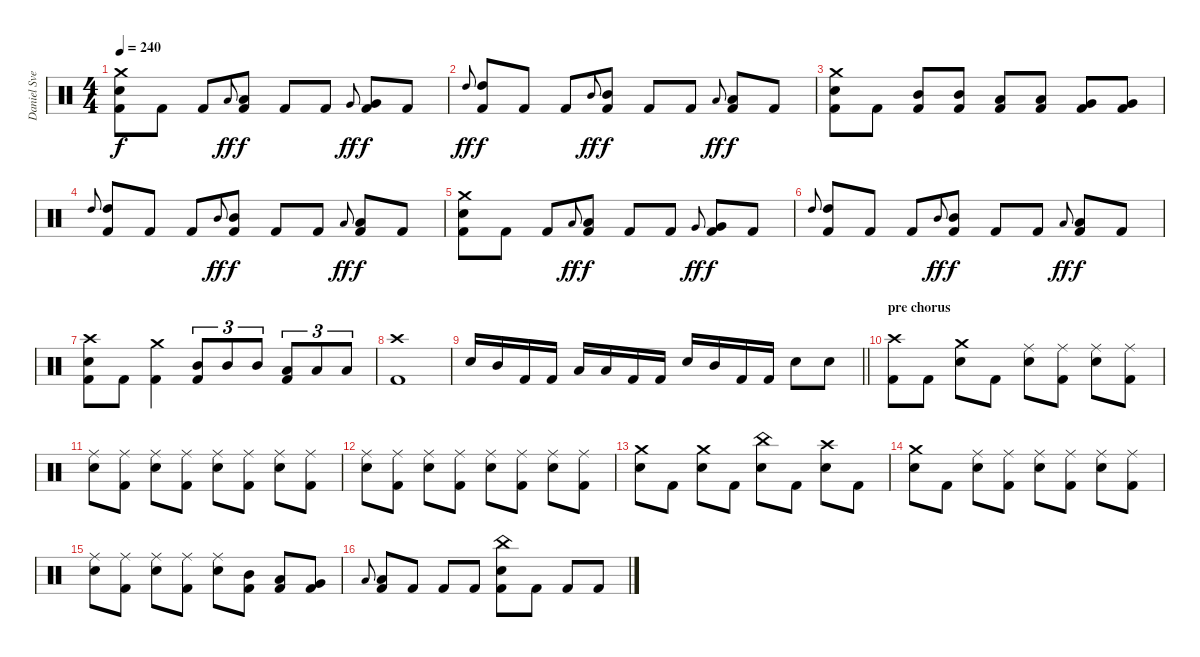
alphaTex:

\track ("Daniel Svensson" "Daniel Sve") {instrument percussion}
\staff {score}
\articulation defaults
\ts (4 4)
\tempo 240
\clef neutral
\ks c
("Crash medium (hit)" "Electric Snare (hit)" "Kick (hit) 2").8{dy f} "Kick (hit) 2".8 "Kick (hit) 2".8 "Low Tom (hit)".8{gr onbeat dy ff} ("Low Tom (hit)" "Kick (hit) 2").8{dy f} "Kick (hit) 2".8 "Kick (hit) 2".8 "Very Low Tom (hit)".8{gr onbeat dy ff} ("Very Low Tom (hit)" "Kick (hit) 2").8{dy f} "Kick (hit) 2".8 |
"High Tom (hit)".8{gr onbeat dy ff} ("High Tom (hit)" "Kick (hit) 2").8{dy f} "Kick (hit) 2".8 "Kick (hit) 2".8 "Mid Tom (hit)".8{gr onbeat dy ff} ("Mid Tom (hit)" "Kick (hit) 2").8{dy f} "Kick (hit) 2".8 "Kick (hit) 2".8 "Low Tom (hit)".8{gr onbeat dy ff} ("Low Tom (hit)" "Kick (hit) 2").8{dy f} "Kick (hit) 2".8 |
("Crash medium (hit)" "Electric Snare (hit)" "Kick (hit) 2").8 "Kick (hit) 2".8 ("Mid Tom (hit)" "Kick (hit) 2").8 ("Mid Tom (hit)" "Kick (hit) 2").8 ("Low Tom (hit)" "Kick (hit) 2").8 ("Low Tom (hit)" "Kick (hit) 2").8 ("Very Low Tom (hit)" "Kick (hit) 2").8 ("Very Low Tom (hit)" "Kick (hit) 2").8 |
"High Tom (hit)".8{gr onbeat} ("High Tom (hit)" "Kick (hit) 2").8 "Kick (hit) 2".8 "Kick (hit) 2".8 "Mid Tom (hit)".8{gr onbeat dy ff} ("Mid Tom (hit)" "Kick (hit) 2").8{dy f} "Kick (hit) 2".8 "Kick (hit) 2".8 "Low Tom (hit)".8{gr onbeat dy ff} ("Low Tom (hit)" "Kick (hit) 2").8{dy f} "Kick (hit) 2".8 |
("Crash medium (hit)" "Electric Snare (hit)" "Kick (hit) 2").8 "Kick (hit) 2".8 "Kick (hit) 2".8 "Low Tom (hit)".8{gr onbeat dy ff} ("Low Tom (hit)" "Kick (hit) 2").8{dy f} "Kick (hit) 2".8 "Kick (hit) 2".8 "Very Low Tom (hit)".8{gr onbeat dy ff} ("Very Low Tom (hit)" "Kick (hit) 2").8{dy f} "Kick (hit) 2".8 |
"High Tom (hit)".8{gr onbeat} ("High Tom (hit)" "Kick (hit) 2").8 "Kick (hit) 2".8 "Kick (hit) 2".8 "Mid Tom (hit)".8{gr onbeat dy ff} ("Mid Tom (hit)" "Kick (hit) 2").8{dy f} "Kick (hit) 2".8 "Kick (hit) 2".8 "Low Tom (hit)".8{gr onbeat dy ff} ("Low Tom (hit)" "Kick (hit) 2").8{dy f} "Kick (hit) 2".8 |
("Crash high (hit)" "Electric Snare (hit)" "Kick (hit) 2").8 "Kick (hit) 2".8 ("Crash medium (hit)" "Kick (hit) 2").4 ("Mid Tom (hit)" "Kick (hit) 2").8{tu (3 2)} "Mid Tom (hit)".8{tu (3 2)} "Mid Tom (hit)".8{tu (3 2)} ("Low Tom (hit)" "Kick (hit) 2").8{tu (3 2)} "Low Tom (hit)".8{tu (3 2)} "Low Tom (hit)".8{tu (3 2)} |
("Crash high (hit)" "Kick (hit) 2").1 |
\barLineRight lightlight "Electric Snare (hit)".16 "Mid Tom (hit)".16 "Kick (hit) 2".16 "Kick (hit) 2".16 "Low Tom (hit)".16 "Low Tom (hit)".16 "Kick (hit) 2".16 "Kick (hit) 2".16 "Electric Snare (hit)".16 "Mid Tom (hit)".16 "Kick (hit) 2".16 "Kick (hit) 2".16 "Electric Snare (hit)".8 "Electric Snare (hit)".8
|
\section ("" "pre chorus")
("Crash high (hit)" "Kick (hit) 2").8 "Kick (hit) 2".8 ("Crash medium (hit)" "Electric Snare (hit)").8 "Kick (hit) 2".8 ("Ride (middle)" "Electric Snare (hit)").8 ("Ride (middle)" "Kick (hit) 2").8 ("Ride (middle)" "Electric Snare (hit)").8 ("Ride (middle)" "Kick (hit) 2").8 |
("Ride (middle)" "Electric Snare (hit)").8 ("Ride (middle)" "Kick (hit) 2").8 ("Ride (middle)" "Electric Snare (hit)").8 ("Ride (middle)" "Kick (hit) 2").8 ("Ride (middle)" "Electric Snare (hit)").8 ("Ride (middle)" "Kick (hit) 2").8 ("Ride (middle)" "Electric Snare (hit)").8 ("Ride (middle)" "Kick (hit) 2").8 |
("Ride (middle)" "Electric Snare (hit)").8 ("Ride (middle)" "Kick (hit) 2").8 ("Ride (middle)" "Electric Snare (hit)").8 ("Ride (middle)" "Kick (hit) 2").8 ("Ride (middle)" "Electric Snare (hit)").8 ("Ride (middle)" "Kick (hit) 2").8 ("Ride (middle)" "Electric Snare (hit)").8 ("Ride (middle)" "Kick (hit) 2").8 |
("Crash medium (hit)" "Electric Snare (hit)").8 "Kick (hit) 2".8 ("Crash medium (hit)" "Electric Snare (hit)").8 "Kick (hit) 2".8 ("China (hit)" "Electric Snare (hit)").8 "Kick (hit) 2".8 ("Crash high (hit)" "Electric Snare (hit)").8 "Kick (hit) 2".8 |
("Crash medium (hit)" "Electric Snare (hit)").8 "Kick (hit) 2".8 ("Ride (middle)" "Electric Snare (hit)").8 ("Ride (middle)" "Kick (hit) 2").8 ("Ride (middle)" "Electric Snare (hit)").8 ("Ride (middle)" "Kick (hit) 2").8 ("Ride (middle)" "Electric Snare (hit)").8 ("Ride (middle)" "Kick (hit) 2").8 |
("Ride (middle)" "Electric Snare (hit)").8 ("Ride (middle)" "Kick (hit) 2").8 ("Ride (middle)" "Electric Snare (hit)").8 ("Ride (middle)" "Kick (hit) 2").8 ("Ride (middle)" "Electric Snare (hit)").8 ("Mid Tom (hit)" "Kick (hit) 2").8 ("Low Tom (hit)" "Kick (hit) 2").8 ("Very Low Tom (hit)" "Kick (hit) 2").8 |
"Low Tom (hit)".8{gr onbeat} ("Low Tom (hit)" "Kick (hit) 2").8 "Kick (hit) 2".8 "Kick (hit) 2".8 "Kick (hit) 2".8 ("China (hit)" "Electric Snare (hit)" "Kick (hit) 2").8 "Kick (hit) 2".8 "Kick (hit) 2".8 "Kick (hit) 2".8
